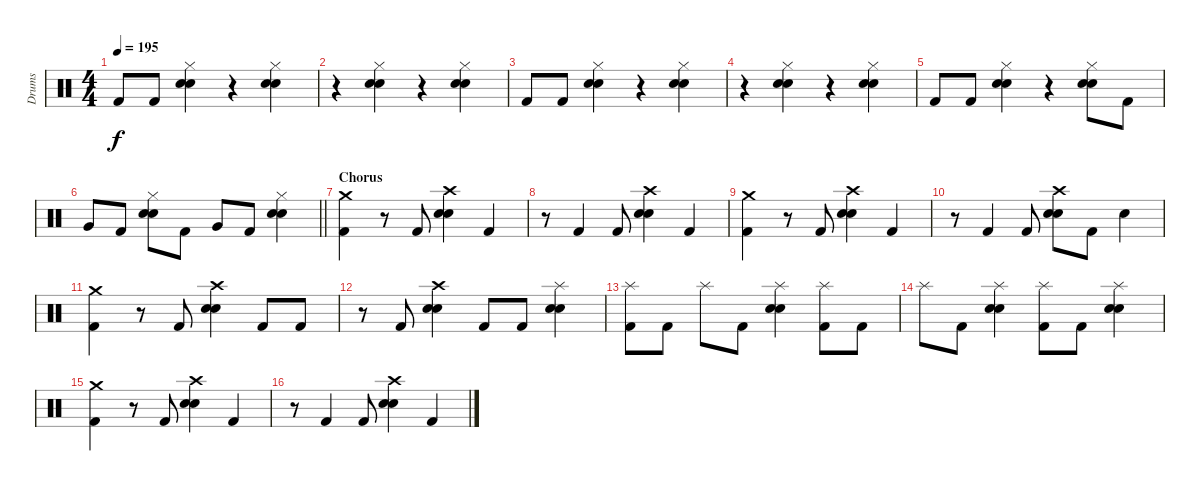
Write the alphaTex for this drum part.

\track ("Drums" "Drums") {instrument percussion}
\staff {score}
\articulation defaults
\ts (4 4)
\tempo 195
\clef neutral
\ks c "Kick (hit) 2".8{dy f} "Kick (hit) 2".8
("Hi-Hat (closed)" "Electric Snare (hit)" "Snare (hit) 2").4 r.4 ("Hi-Hat (closed)" "Electric Snare (hit)" "Snare (hit) 2").4 |
r.4 ("Hi-Hat (closed)" "Electric Snare (hit)" "Snare (hit) 2").4 r.4 ("Hi-Hat (closed)" "Electric Snare (hit)" "Snare (hit) 2").4 |
"Kick (hit) 2".8 "Kick (hit) 2".8 ("Hi-Hat (closed)" "Electric Snare (hit)" "Snare (hit) 2").4 r.4 ("Hi-Hat (closed)" "Electric Snare (hit)" "Snare (hit) 2").4 |
r.4 ("Hi-Hat (closed)" "Electric Snare (hit)" "Snare (hit) 2").4 r.4 ("Hi-Hat (closed)" "Electric Snare (hit)" "Snare (hit) 2").4 |
"Kick (hit) 2".8 "Kick (hit) 2".8 ("Hi-Hat (closed)" "Electric Snare (hit)" "Snare (hit) 2").4 r.4 ("Hi-Hat (closed)" "Electric Snare (hit)" "Snare (hit) 2").8 "Kick (hit) 2".8 |
\barLineRight lightlight "Very Low Tom (hit)".8 "Kick (hit) 2".8
("Hi-Hat (closed)" "Electric Snare (hit)" "Snare (hit) 2").8 "Kick (hit) 2".8 "Very Low Tom (hit)".8 "Kick (hit) 2".8 ("Hi-Hat (closed)" "Electric Snare (hit)" "Snare (hit) 2").4 |
\section ("" "Chorus")
("Crash medium (hit)" "Kick (hit) 2").4 r.8 "Kick (hit) 2".8 ("Crash high (hit)" "Electric Snare (hit)" "Snare (hit) 2").4 "Kick (hit) 2".4 |
r.8 "Kick (hit) 2".4 "Kick (hit) 2".8 ("Crash high (hit)" "Electric Snare (hit)" "Snare (hit) 2").4 "Kick (hit) 2".4 |
("Crash medium (hit)" "Kick (hit) 2").4 r.8 "Kick (hit) 2".8 ("Crash high (hit)" "Electric Snare (hit)" "Snare (hit) 2").4 "Kick (hit) 2".4 |
r.8 "Kick (hit) 2".4 "Kick (hit) 2".8 ("Crash high (hit)" "Electric Snare (hit)" "Snare (hit) 2").8 "Kick (hit) 2".8 "Electric Snare (hit)".4 |
("Crash medium (hit)" "Kick (hit) 2").4 r.8 "Kick (hit) 2".8 ("Crash high (hit)" "Electric Snare (hit)" "Snare (hit) 2").4 "Kick (hit) 2".8 "Kick (hit) 2".8 |
r.8 "Kick (hit) 2".8 ("Crash high (hit)" "Electric Snare (hit)" "Snare (hit) 2").4 "Kick (hit) 2".8 "Kick (hit) 2".8 ("Splash (hit)" "Electric Snare (hit)" "Snare (hit) 2").4 |
("Splash (hit)" "Kick (hit) 2").8 "Kick (hit) 2".8 "Splash (hit)".8 "Kick (hit) 2".8 ("Splash (hit)" "Electric Snare (hit)" "Snare (hit) 2").4 ("Splash (hit)" "Kick (hit) 2").8 "Kick (hit) 2".8 |
"Splash (hit)".8 "Kick (hit) 2".8 ("Splash (hit)" "Electric Snare (hit)" "Snare (hit) 2").4 ("Splash (hit)" "Kick (hit) 2").8 "Kick (hit) 2".8 ("Splash (hit)" "Electric Snare (hit)" "Snare (hit) 2").4 |
("Crash medium (hit)" "Kick (hit) 2").4 r.8 "Kick (hit) 2".8 ("Crash high (hit)" "Electric Snare (hit)" "Snare (hit) 2").4 "Kick (hit) 2".4 |
r.8 "Kick (hit) 2".4 "Kick (hit) 2".8 ("Crash high (hit)" "Electric Snare (hit)" "Snare (hit) 2").4 "Kick (hit) 2".4
